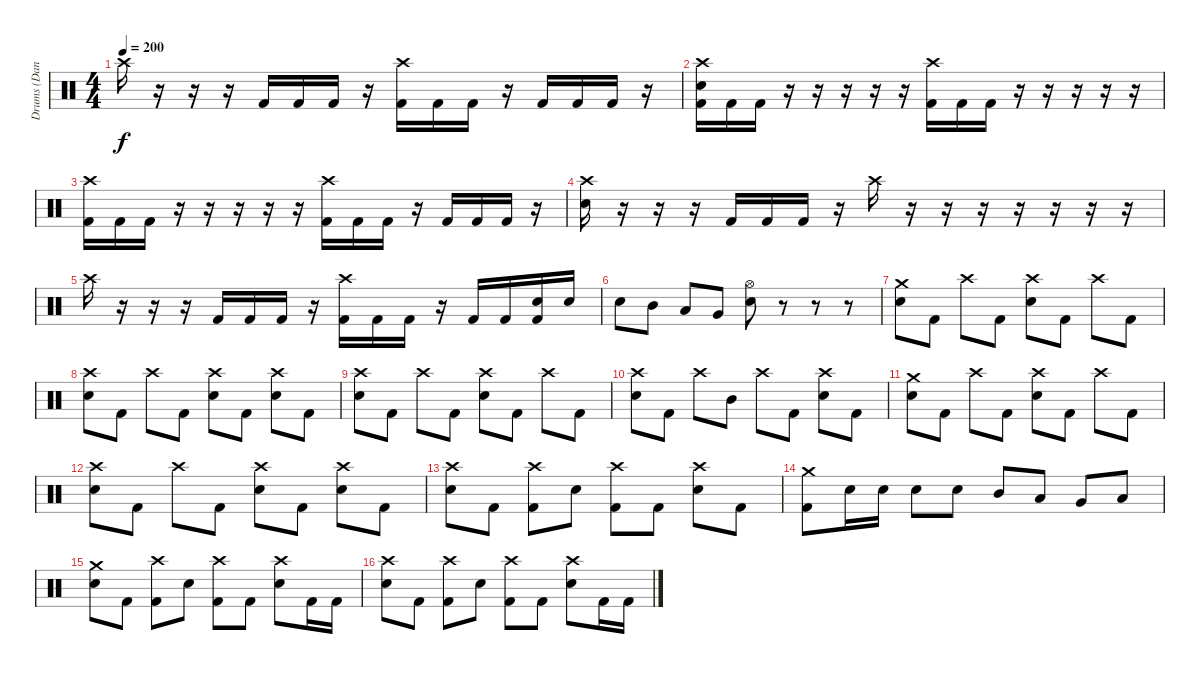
\track ("Drums (Daniel)" "Drums (Dan") {instrument percussion}
\staff {score}
\articulation defaults
\ts (4 4)
\tempo 200
\clef neutral
\ks c "Crash high (hit)".16{dy f}
r.16 r.16 r.16 "Kick (hit) 2".16 "Kick (hit) 2".16 "Kick (hit) 2".16 r.16 ("Crash high (hit)" "Kick (hit) 2").16 "Kick (hit) 2".16 "Kick (hit) 2".16 r.16 "Kick (hit) 2".16 "Kick (hit) 2".16 "Kick (hit) 2".16 r.16 |
("Crash high (hit)" "Electric Snare (hit)" "Kick (hit) 2").16 "Kick (hit) 2".16 "Kick (hit) 2".16 r.16 r.16 r.16 r.16 r.16 ("Crash high (hit)" "Kick (hit) 2").16 "Kick (hit) 2".16 "Kick (hit) 2".16 r.16 r.16 r.16 r.16 r.16 |
("Crash high (hit)" "Kick (hit) 2").16 "Kick (hit) 2".16 "Kick (hit) 2".16 r.16 r.16 r.16 r.16 r.16 ("Crash high (hit)" "Kick (hit) 2").16 "Kick (hit) 2".16 "Kick (hit) 2".16 r.16 "Kick (hit) 2".16 "Kick (hit) 2".16 "Kick (hit) 2".16 r.16 |
("Crash high (hit)" "Electric Snare (hit)").16 r.16 r.16 r.16 "Kick (hit) 2".16 "Kick (hit) 2".16 "Kick (hit) 2".16 r.16 "Crash high (hit)".16 r.16 r.16 r.16 r.16 r.16 r.16 r.16 |
"Crash high (hit)".16 r.16 r.16 r.16 "Kick (hit) 2".16 "Kick (hit) 2".16 "Kick (hit) 2".16 r.16 ("Crash high (hit)" "Kick (hit) 2").16 "Kick (hit) 2".16 "Kick (hit) 2".16 r.16 "Kick (hit) 2".16 "Kick (hit) 2".16 ("Electric Snare (hit)" "Kick (hit) 2").16 "Electric Snare (hit)".16 |
"Electric Snare (hit)".8 "Mid Tom (hit)".8 "Low Tom (hit)".8 "Very Low Tom (hit)".8 ("Hi-Hat (open)" "Electric Snare (hit)").8 r.8 r.8 r.8 |
("Crash medium (hit)" "Electric Snare (hit)").8 "Kick (hit) 2".8 "Crash high (hit)".8 "Kick (hit) 2".8 ("Crash high (hit)" "Electric Snare (hit)").8 "Kick (hit) 2".8 "Crash high (hit)".8 "Kick (hit) 2".8 |
("Crash high (hit)" "Electric Snare (hit)").8 "Kick (hit) 2".8 "Crash high (hit)".8 "Kick (hit) 2".8 ("Crash high (hit)" "Electric Snare (hit)").8 "Kick (hit) 2".8 ("Crash high (hit)" "Electric Snare (hit)").8 "Kick (hit) 2".8 |
("Crash high (hit)" "Electric Snare (hit)").8 "Kick (hit) 2".8 "Crash high (hit)".8 "Kick (hit) 2".8 ("Crash high (hit)" "Electric Snare (hit)").8 "Kick (hit) 2".8 "Crash high (hit)".8 "Kick (hit) 2".8 |
("Crash high (hit)" "Electric Snare (hit)").8 "Kick (hit) 2".8 "Crash high (hit)".8 "Mid Tom (hit)".8 "Crash high (hit)".8 "Kick (hit) 2".8 ("Crash high (hit)" "Electric Snare (hit)").8 "Kick (hit) 2".8 |
("Crash medium (hit)" "Electric Snare (hit)").8 "Kick (hit) 2".8 "Crash high (hit)".8 "Kick (hit) 2".8 ("Crash high (hit)" "Electric Snare (hit)").8 "Kick (hit) 2".8 "Crash high (hit)".8 "Kick (hit) 2".8 |
("Crash high (hit)" "Electric Snare (hit)").8 "Kick (hit) 2".8 "Crash high (hit)".8 "Kick (hit) 2".8 ("Crash high (hit)" "Electric Snare (hit)").8 "Kick (hit) 2".8 ("Crash high (hit)" "Electric Snare (hit)").8 "Kick (hit) 2".8 |
("Crash high (hit)" "Electric Snare (hit)").8 "Kick (hit) 2".8 ("Crash high (hit)" "Kick (hit) 2").8 "Electric Snare (hit)".8 ("Crash high (hit)" "Kick (hit) 2").8 "Kick (hit) 2".8 ("Crash high (hit)" "Electric Snare (hit)").8 "Kick (hit) 2".8 |
("Crash medium (hit)" "Kick (hit) 2").8 "Electric Snare (hit)".16 "Electric Snare (hit)".16 "Electric Snare (hit)".8 "Electric Snare (hit)".8 "Mid Tom (hit)".8 "Low Tom (hit)".8 "Very Low Tom (hit)".8 "Low Floor Tom (hit)".8 |
("Crash medium (hit)" "Electric Snare (hit)").8 "Kick (hit) 2".8 ("Crash high (hit)" "Kick (hit) 2").8 "Electric Snare (hit)".8 ("Crash high (hit)" "Kick (hit) 2").8 "Kick (hit) 2".8 ("Crash high (hit)" "Electric Snare (hit)").8 "Kick (hit) 2".16 "Kick (hit) 2".16 |
("Crash high (hit)" "Electric Snare (hit)").8 "Kick (hit) 2".8 ("Crash high (hit)" "Kick (hit) 2").8 "Electric Snare (hit)".8 ("Crash high (hit)" "Kick (hit) 2").8 "Kick (hit) 2".8 ("Crash high (hit)" "Electric Snare (hit)").8 "Kick (hit) 2".16 "Kick (hit) 2".16
